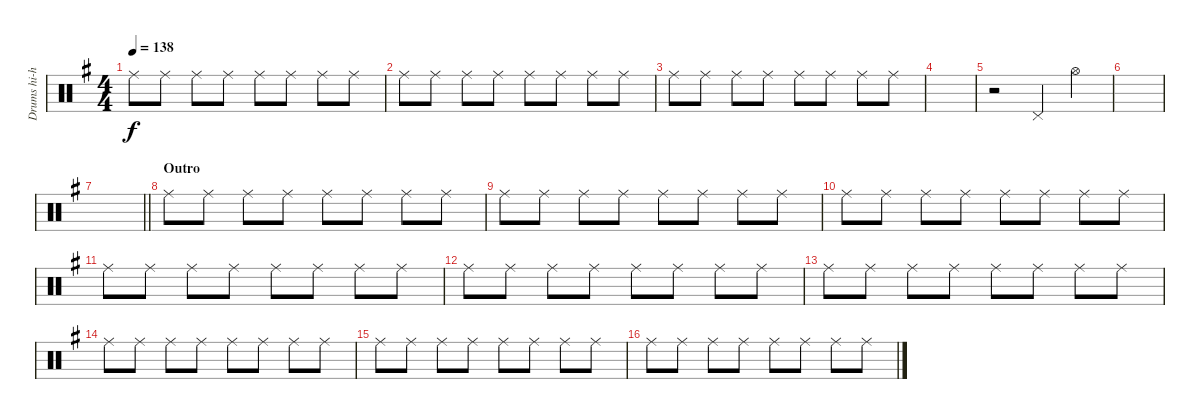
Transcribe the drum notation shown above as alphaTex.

\track ("Drums hi-hat" "Drums hi-h") {instrument percussion}
\staff {score}
\articulation defaults
\ts (4 4)
\tempo 138
\clef neutral
\ks g "Ride (middle)".8{dy f} "Ride (middle)".8 "Ride (middle)".8 "Ride (middle)".8 "Ride (middle)".8 "Ride (middle)".8 "Ride (middle)".8 "Ride (middle)".8
|
"Ride (middle)".8 "Ride (middle)".8 "Ride (middle)".8 "Ride (middle)".8 "Ride (middle)".8 "Ride (middle)".8 "Ride (middle)".8 "Ride (middle)".8 |
"Ride (middle)".8 "Ride (middle)".8 "Ride (middle)".8 "Ride (middle)".8 "Ride (middle)".8 "Ride (middle)".8 "Ride (middle)".8 "Ride (middle)".8 |
|
r.2 "Pedal Hi-Hat (hit)".4 "Hi-Hat (open)".4 |
|
\barLineRight lightlight
|
\section ("" "Outro")
"Ride (middle)".8 "Ride (middle)".8 "Ride (middle)".8 "Ride (middle)".8 "Ride (middle)".8 "Ride (middle)".8 "Ride (middle)".8 "Ride (middle)".8 |
"Ride (middle)".8 "Ride (middle)".8 "Ride (middle)".8 "Ride (middle)".8 "Ride (middle)".8 "Ride (middle)".8 "Ride (middle)".8 "Ride (middle)".8 |
"Ride (middle)".8 "Ride (middle)".8 "Ride (middle)".8 "Ride (middle)".8 "Ride (middle)".8 "Ride (middle)".8 "Ride (middle)".8 "Ride (middle)".8 |
"Ride (middle)".8 "Ride (middle)".8 "Ride (middle)".8 "Ride (middle)".8 "Ride (middle)".8 "Ride (middle)".8 "Ride (middle)".8 "Ride (middle)".8 |
"Ride (middle)".8 "Ride (middle)".8 "Ride (middle)".8 "Ride (middle)".8 "Ride (middle)".8 "Ride (middle)".8 "Ride (middle)".8 "Ride (middle)".8 |
"Ride (middle)".8 "Ride (middle)".8 "Ride (middle)".8 "Ride (middle)".8 "Ride (middle)".8 "Ride (middle)".8 "Ride (middle)".8 "Ride (middle)".8 |
"Ride (middle)".8 "Ride (middle)".8 "Ride (middle)".8 "Ride (middle)".8 "Ride (middle)".8 "Ride (middle)".8 "Ride (middle)".8 "Ride (middle)".8 |
"Ride (middle)".8 "Ride (middle)".8 "Ride (middle)".8 "Ride (middle)".8 "Ride (middle)".8 "Ride (middle)".8 "Ride (middle)".8 "Ride (middle)".8 |
"Ride (middle)".8 "Ride (middle)".8 "Ride (middle)".8 "Ride (middle)".8 "Ride (middle)".8 "Ride (middle)".8 "Ride (middle)".8 "Ride (middle)".8
